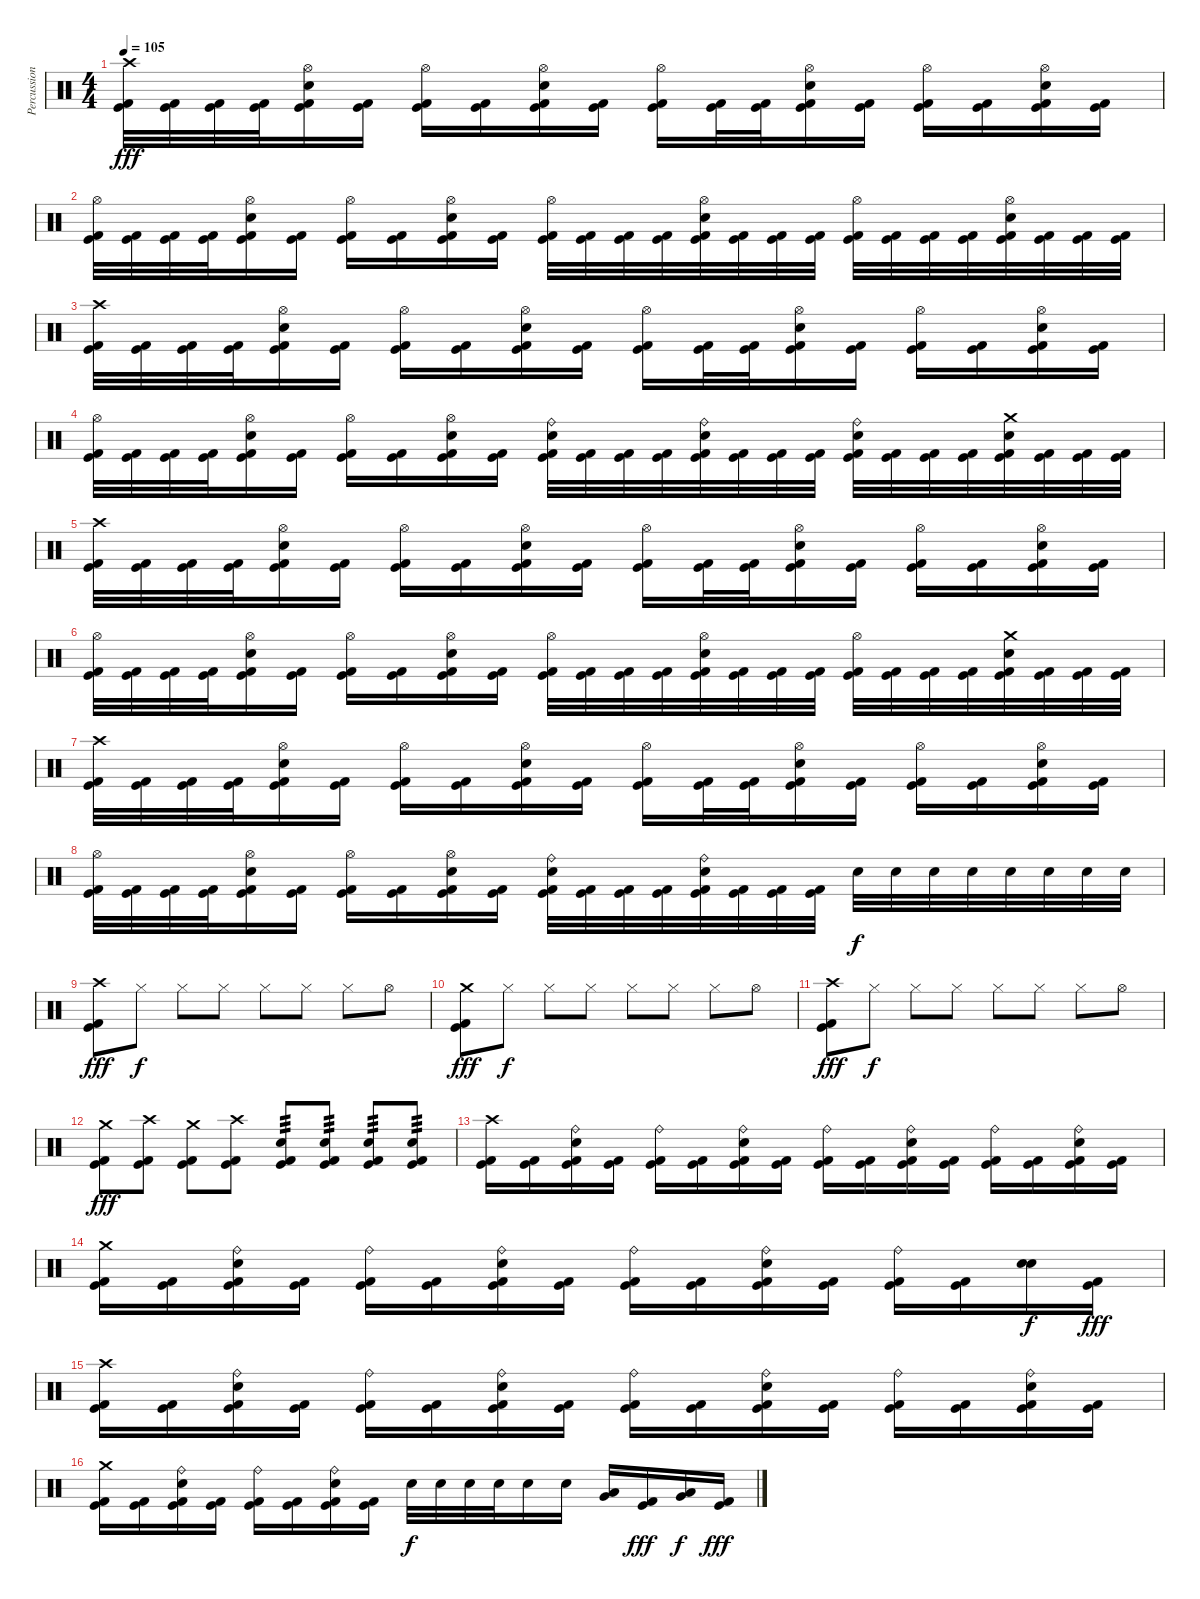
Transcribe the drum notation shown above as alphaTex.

\track ("Percussion" "Percussion") {instrument percussion}
\staff {score}
\articulation defaults
\ts (4 4)
\tempo 105
\clef neutral
\ks c
("Crash high (hit)" "Kick (hit)" "Kick (hit) 2").32{dy fff} ("Kick (hit)" "Kick (hit) 2").32 ("Kick (hit)" "Kick (hit) 2").32 ("Kick (hit)" "Kick (hit) 2").32 ("Hi-Hat (open)" "Electric Snare (hit)" "Kick (hit)" "Kick (hit) 2").16 ("Kick (hit)" "Kick (hit) 2").16 ("Hi-Hat (open)" "Kick (hit)" "Kick (hit) 2").16 ("Kick (hit)" "Kick (hit) 2").16 ("Hi-Hat (open)" "Electric Snare (hit)" "Kick (hit)" "Kick (hit) 2").16 ("Kick (hit)" "Kick (hit) 2").16 ("Hi-Hat (open)" "Kick (hit)" "Kick (hit) 2").16 ("Kick (hit)" "Kick (hit) 2").32 ("Kick (hit)" "Kick (hit) 2").32 ("Hi-Hat (open)" "Electric Snare (hit)" "Kick (hit)" "Kick (hit) 2").16 ("Kick (hit)" "Kick (hit) 2").16 ("Hi-Hat (open)" "Kick (hit)" "Kick (hit) 2").16 ("Kick (hit)" "Kick (hit) 2").16 ("Hi-Hat (open)" "Electric Snare (hit)" "Kick (hit)" "Kick (hit) 2").16 ("Kick (hit)" "Kick (hit) 2").16 |
("Hi-Hat (open)" "Kick (hit)" "Kick (hit) 2").32 ("Kick (hit)" "Kick (hit) 2").32 ("Kick (hit)" "Kick (hit) 2").32 ("Kick (hit)" "Kick (hit) 2").32 ("Hi-Hat (open)" "Electric Snare (hit)" "Kick (hit)" "Kick (hit) 2").16 ("Kick (hit)" "Kick (hit) 2").16 ("Hi-Hat (open)" "Kick (hit)" "Kick (hit) 2").16 ("Kick (hit)" "Kick (hit) 2").16 ("Hi-Hat (open)" "Electric Snare (hit)" "Kick (hit)" "Kick (hit) 2").16 ("Kick (hit)" "Kick (hit) 2").16 ("Hi-Hat (open)" "Kick (hit)" "Kick (hit) 2").32 ("Kick (hit)" "Kick (hit) 2").32 ("Kick (hit)" "Kick (hit) 2").32 ("Kick (hit)" "Kick (hit) 2").32 ("Hi-Hat (open)" "Electric Snare (hit)" "Kick (hit)" "Kick (hit) 2").32 ("Kick (hit)" "Kick (hit) 2").32 ("Kick (hit)" "Kick (hit) 2").32 ("Kick (hit)" "Kick (hit) 2").32 ("Hi-Hat (open)" "Kick (hit)" "Kick (hit) 2").32 ("Kick (hit)" "Kick (hit) 2").32 ("Kick (hit)" "Kick (hit) 2").32 ("Kick (hit)" "Kick (hit) 2").32 ("Hi-Hat (open)" "Electric Snare (hit)" "Kick (hit)" "Kick (hit) 2").32 ("Kick (hit)" "Kick (hit) 2").32 ("Kick (hit)" "Kick (hit) 2").32 ("Kick (hit)" "Kick (hit) 2").32 |
("Crash high (hit)" "Kick (hit)" "Kick (hit) 2").32 ("Kick (hit)" "Kick (hit) 2").32 ("Kick (hit)" "Kick (hit) 2").32 ("Kick (hit)" "Kick (hit) 2").32 ("Hi-Hat (open)" "Electric Snare (hit)" "Kick (hit)" "Kick (hit) 2").16 ("Kick (hit)" "Kick (hit) 2").16 ("Hi-Hat (open)" "Kick (hit)" "Kick (hit) 2").16 ("Kick (hit)" "Kick (hit) 2").16 ("Hi-Hat (open)" "Electric Snare (hit)" "Kick (hit)" "Kick (hit) 2").16 ("Kick (hit)" "Kick (hit) 2").16 ("Hi-Hat (open)" "Kick (hit)" "Kick (hit) 2").16 ("Kick (hit)" "Kick (hit) 2").32 ("Kick (hit)" "Kick (hit) 2").32 ("Hi-Hat (open)" "Electric Snare (hit)" "Kick (hit)" "Kick (hit) 2").16 ("Kick (hit)" "Kick (hit) 2").16 ("Hi-Hat (open)" "Kick (hit)" "Kick (hit) 2").16 ("Kick (hit)" "Kick (hit) 2").16 ("Hi-Hat (open)" "Electric Snare (hit)" "Kick (hit)" "Kick (hit) 2").16 ("Kick (hit)" "Kick (hit) 2").16 |
("Hi-Hat (open)" "Kick (hit)" "Kick (hit) 2").32 ("Kick (hit)" "Kick (hit) 2").32 ("Kick (hit)" "Kick (hit) 2").32 ("Kick (hit)" "Kick (hit) 2").32 ("Hi-Hat (open)" "Electric Snare (hit)" "Kick (hit)" "Kick (hit) 2").16 ("Kick (hit)" "Kick (hit) 2").16 ("Hi-Hat (open)" "Kick (hit)" "Kick (hit) 2").16 ("Kick (hit)" "Kick (hit) 2").16 ("Hi-Hat (open)" "Electric Snare (hit)" "Kick (hit)" "Kick (hit) 2").16 ("Kick (hit)" "Kick (hit) 2").16 ("Ride (bell)" "Electric Snare (hit)" "Kick (hit)" "Kick (hit) 2").32 ("Kick (hit)" "Kick (hit) 2").32 ("Kick (hit)" "Kick (hit) 2").32 ("Kick (hit)" "Kick (hit) 2").32 ("Ride (bell)" "Electric Snare (hit)" "Kick (hit)" "Kick (hit) 2").32 ("Kick (hit)" "Kick (hit) 2").32 ("Kick (hit)" "Kick (hit) 2").32 ("Kick (hit)" "Kick (hit) 2").32 ("Ride (bell)" "Electric Snare (hit)" "Kick (hit)" "Kick (hit) 2").32 ("Kick (hit)" "Kick (hit) 2").32 ("Kick (hit)" "Kick (hit) 2").32 ("Kick (hit)" "Kick (hit) 2").32 ("Crash medium (hit)" "Electric Snare (hit)" "Kick (hit)" "Kick (hit) 2").32 ("Kick (hit)" "Kick (hit) 2").32 ("Kick (hit)" "Kick (hit) 2").32 ("Kick (hit)" "Kick (hit) 2").32 |
("Crash high (hit)" "Kick (hit)" "Kick (hit) 2").32 ("Kick (hit)" "Kick (hit) 2").32 ("Kick (hit)" "Kick (hit) 2").32 ("Kick (hit)" "Kick (hit) 2").32 ("Hi-Hat (open)" "Electric Snare (hit)" "Kick (hit)" "Kick (hit) 2").16 ("Kick (hit)" "Kick (hit) 2").16 ("Hi-Hat (open)" "Kick (hit)" "Kick (hit) 2").16 ("Kick (hit)" "Kick (hit) 2").16 ("Hi-Hat (open)" "Electric Snare (hit)" "Kick (hit)" "Kick (hit) 2").16 ("Kick (hit)" "Kick (hit) 2").16 ("Hi-Hat (open)" "Kick (hit)" "Kick (hit) 2").16 ("Kick (hit)" "Kick (hit) 2").32 ("Kick (hit)" "Kick (hit) 2").32 ("Hi-Hat (open)" "Electric Snare (hit)" "Kick (hit)" "Kick (hit) 2").16 ("Kick (hit)" "Kick (hit) 2").16 ("Hi-Hat (open)" "Kick (hit)" "Kick (hit) 2").16 ("Kick (hit)" "Kick (hit) 2").16 ("Hi-Hat (open)" "Electric Snare (hit)" "Kick (hit)" "Kick (hit) 2").16 ("Kick (hit)" "Kick (hit) 2").16 |
("Hi-Hat (open)" "Kick (hit)" "Kick (hit) 2").32 ("Kick (hit)" "Kick (hit) 2").32 ("Kick (hit)" "Kick (hit) 2").32 ("Kick (hit)" "Kick (hit) 2").32 ("Hi-Hat (open)" "Electric Snare (hit)" "Kick (hit)" "Kick (hit) 2").16 ("Kick (hit)" "Kick (hit) 2").16 ("Hi-Hat (open)" "Kick (hit)" "Kick (hit) 2").16 ("Kick (hit)" "Kick (hit) 2").16 ("Hi-Hat (open)" "Electric Snare (hit)" "Kick (hit)" "Kick (hit) 2").16 ("Kick (hit)" "Kick (hit) 2").16 ("Hi-Hat (open)" "Kick (hit)" "Kick (hit) 2").32 ("Kick (hit) 2" "Kick (hit)").32 ("Kick (hit)" "Kick (hit) 2").32 ("Kick (hit)" "Kick (hit) 2").32 ("Hi-Hat (open)" "Electric Snare (hit)" "Kick (hit)" "Kick (hit) 2").32 ("Kick (hit)" "Kick (hit) 2").32 ("Kick (hit)" "Kick (hit) 2").32 ("Kick (hit)" "Kick (hit) 2").32 ("Hi-Hat (open)" "Kick (hit)" "Kick (hit) 2").32 ("Kick (hit)" "Kick (hit) 2").32 ("Kick (hit)" "Kick (hit) 2").32 ("Kick (hit)" "Kick (hit) 2").32 ("Crash medium (hit)" "Electric Snare (hit)" "Kick (hit)" "Kick (hit) 2").32 ("Kick (hit)" "Kick (hit) 2").32 ("Kick (hit)" "Kick (hit) 2").32 ("Kick (hit)" "Kick (hit) 2").32 |
("Crash high (hit)" "Kick (hit)" "Kick (hit) 2").32 ("Kick (hit)" "Kick (hit) 2").32 ("Kick (hit)" "Kick (hit) 2").32 ("Kick (hit)" "Kick (hit) 2").32 ("Hi-Hat (open)" "Electric Snare (hit)" "Kick (hit)" "Kick (hit) 2").16 ("Kick (hit)" "Kick (hit) 2").16 ("Hi-Hat (open)" "Kick (hit)" "Kick (hit) 2").16 ("Kick (hit)" "Kick (hit) 2").16 ("Hi-Hat (open)" "Electric Snare (hit)" "Kick (hit)" "Kick (hit) 2").16 ("Kick (hit)" "Kick (hit) 2").16 ("Hi-Hat (open)" "Kick (hit)" "Kick (hit) 2").16 ("Kick (hit)" "Kick (hit) 2").32 ("Kick (hit)" "Kick (hit) 2").32 ("Hi-Hat (open)" "Electric Snare (hit)" "Kick (hit)" "Kick (hit) 2").16 ("Kick (hit)" "Kick (hit) 2").16 ("Hi-Hat (open)" "Kick (hit)" "Kick (hit) 2").16 ("Kick (hit)" "Kick (hit) 2").16 ("Hi-Hat (open)" "Electric Snare (hit)" "Kick (hit)" "Kick (hit) 2").16 ("Kick (hit)" "Kick (hit) 2").16 |
("Hi-Hat (open)" "Kick (hit)" "Kick (hit) 2").32 ("Kick (hit)" "Kick (hit) 2").32 ("Kick (hit)" "Kick (hit) 2").32 ("Kick (hit)" "Kick (hit) 2").32 ("Hi-Hat (open)" "Electric Snare (hit)" "Kick (hit)" "Kick (hit) 2").16 ("Kick (hit)" "Kick (hit) 2").16 ("Hi-Hat (open)" "Kick (hit)" "Kick (hit) 2").16 ("Kick (hit)" "Kick (hit) 2").16 ("Hi-Hat (open)" "Electric Snare (hit)" "Kick (hit)" "Kick (hit) 2").16 ("Kick (hit)" "Kick (hit) 2").16 ("Ride (bell)" "Electric Snare (hit)" "Kick (hit)" "Kick (hit) 2").32 ("Kick (hit)" "Kick (hit) 2").32 ("Kick (hit)" "Kick (hit) 2").32 ("Kick (hit)" "Kick (hit) 2").32 ("Ride (bell)" "Electric Snare (hit)" "Kick (hit)" "Kick (hit) 2").32 ("Kick (hit)" "Kick (hit) 2").32 ("Kick (hit)" "Kick (hit) 2").32 ("Kick (hit)" "Kick (hit) 2").32 "Electric Snare (hit)".32{dy f} "Electric Snare (hit)".32 "Electric Snare (hit)".32 "Electric Snare (hit)".32 "Electric Snare (hit)".32 "Electric Snare (hit)".32 "Electric Snare (hit)".32 "Electric Snare (hit)".32 |
("Crash high (hit)" "Kick (hit)" "Kick (hit) 2").8{dy fff} "Hi-Hat (closed)".8{dy f} "Hi-Hat (closed)".8 "Hi-Hat (closed)".8 "Hi-Hat (closed)".8 "Hi-Hat (closed)".8 "Hi-Hat (closed)".8 "Hi-Hat (open)".8 |
("Crash medium (hit)" "Kick (hit)" "Kick (hit) 2").8{dy fff} "Hi-Hat (closed)".8{dy f} "Hi-Hat (closed)".8 "Hi-Hat (closed)".8 "Hi-Hat (closed)".8 "Hi-Hat (closed)".8 "Hi-Hat (closed)".8 "Hi-Hat (open)".8 |
("Crash high (hit)" "Kick (hit)" "Kick (hit) 2").8{dy fff} "Hi-Hat (closed)".8{dy f} "Hi-Hat (closed)".8 "Hi-Hat (closed)".8 "Hi-Hat (closed)".8 "Hi-Hat (closed)".8 "Hi-Hat (closed)".8 "Hi-Hat (open)".8 |
("Crash medium (hit)" "Kick (hit)" "Kick (hit) 2").8{dy fff} ("Crash high (hit)" "Kick (hit)" "Kick (hit) 2").8 ("Crash medium (hit)" "Kick (hit)" "Kick (hit) 2").8 ("Crash high (hit)" "Kick (hit)" "Kick (hit) 2").8 ("Electric Snare (hit)" "Kick (hit)" "Kick (hit) 2").8{tp 3} ("Electric Snare (hit)" "Kick (hit)" "Kick (hit) 2").8{tp 3} ("Electric Snare (hit)" "Kick (hit)" "Kick (hit) 2").8{tp 3} ("Electric Snare (hit)" "Kick (hit)" "Kick (hit) 2").8{tp 3} |
("Crash high (hit)" "Kick (hit)" "Kick (hit) 2").16 ("Kick (hit)" "Kick (hit) 2").16 ("Ride (bell)" "Electric Snare (hit)" "Kick (hit)" "Kick (hit) 2").16 ("Kick (hit)" "Kick (hit) 2").16 ("Ride (bell)" "Kick (hit)" "Kick (hit) 2").16 ("Kick (hit)" "Kick (hit) 2").16 ("Ride (bell)" "Electric Snare (hit)" "Kick (hit)" "Kick (hit) 2").16 ("Kick (hit)" "Kick (hit) 2").16 ("Ride (bell)" "Kick (hit)" "Kick (hit) 2").16 ("Kick (hit)" "Kick (hit) 2").16 ("Ride (bell)" "Electric Snare (hit)" "Kick (hit)" "Kick (hit) 2").16 ("Kick (hit)" "Kick (hit) 2").16 ("Ride (bell)" "Kick (hit)" "Kick (hit) 2").16 ("Kick (hit)" "Kick (hit) 2").16 ("Ride (bell)" "Electric Snare (hit)" "Kick (hit)" "Kick (hit) 2").16 ("Kick (hit)" "Kick (hit) 2").16 |
("Crash medium (hit)" "Kick (hit)" "Kick (hit) 2").16 ("Kick (hit)" "Kick (hit) 2").16 ("Ride (bell)" "Electric Snare (hit)" "Kick (hit)" "Kick (hit) 2").16 ("Kick (hit)" "Kick (hit) 2").16 ("Ride (bell)" "Kick (hit)" "Kick (hit) 2").16 ("Kick (hit)" "Kick (hit) 2").16 ("Ride (bell)" "Electric Snare (hit)" "Kick (hit)" "Kick (hit) 2").16 ("Kick (hit)" "Kick (hit) 2").16 ("Ride (bell)" "Kick (hit)" "Kick (hit) 2").16 ("Kick (hit)" "Kick (hit) 2").16 ("Ride (bell)" "Electric Snare (hit)" "Kick (hit)" "Kick (hit) 2").16 ("Kick (hit)" "Kick (hit) 2").16 ("Ride (bell)" "Kick (hit)" "Kick (hit) 2").16 ("Kick (hit)" "Kick (hit) 2").16 ("Electric Snare (hit)" "Electric Snare (hit)").16{bu 60 dy f} ("Kick (hit)" "Kick (hit) 2").16{dy fff} |
("Crash high (hit)" "Kick (hit)" "Kick (hit) 2").16 ("Kick (hit)" "Kick (hit) 2").16 ("Ride (bell)" "Electric Snare (hit)" "Kick (hit)" "Kick (hit) 2").16 ("Kick (hit)" "Kick (hit) 2").16 ("Ride (bell)" "Kick (hit)" "Kick (hit) 2").16 ("Kick (hit)" "Kick (hit) 2").16 ("Ride (bell)" "Electric Snare (hit)" "Kick (hit)" "Kick (hit) 2").16 ("Kick (hit)" "Kick (hit) 2").16 ("Ride (bell)" "Kick (hit)" "Kick (hit) 2").16 ("Kick (hit)" "Kick (hit) 2").16 ("Ride (bell)" "Electric Snare (hit)" "Kick (hit)" "Kick (hit) 2").16 ("Kick (hit)" "Kick (hit) 2").16 ("Ride (bell)" "Kick (hit)" "Kick (hit) 2").16 ("Kick (hit)" "Kick (hit) 2").16 ("Ride (bell)" "Electric Snare (hit)" "Kick (hit)" "Kick (hit) 2").16 ("Kick (hit)" "Kick (hit) 2").16 |
("Crash medium (hit)" "Kick (hit)" "Kick (hit) 2").16 ("Kick (hit)" "Kick (hit) 2").16 ("Ride (bell)" "Electric Snare (hit)" "Kick (hit)" "Kick (hit) 2").16 ("Kick (hit)" "Kick (hit) 2").16 ("Ride (bell)" "Kick (hit)" "Kick (hit) 2").16 ("Kick (hit)" "Kick (hit) 2").16 ("Ride (bell)" "Electric Snare (hit)" "Kick (hit)" "Kick (hit) 2").16 ("Kick (hit)" "Kick (hit) 2").16 "Electric Snare (hit)".32{dy f} "Electric Snare (hit)".32 "Electric Snare (hit)".32 "Electric Snare (hit)".32 "Electric Snare (hit)".16 "Electric Snare (hit)".16 ("Low Tom (hit)" "Very Low Tom (hit)").16{bu 120} ("Kick (hit)" "Kick (hit) 2").16{dy fff} ("Very Low Tom (hit)" "Low Floor Tom (hit)").16{bu 120 dy f} ("Kick (hit)" "Kick (hit) 2").16{dy fff}
